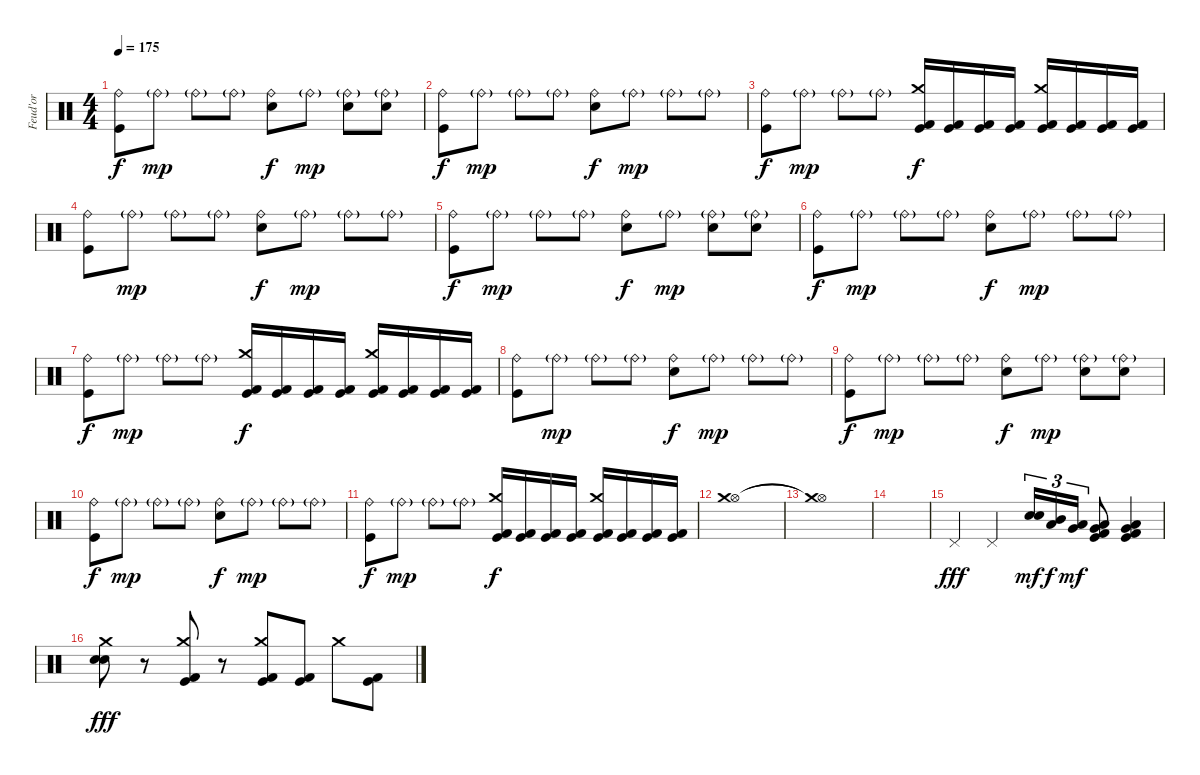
\track ("Feud'or" "Feud'or") {instrument percussion}
\staff {score}
\articulation defaults
\ts (4 4)
\tempo 175
\clef neutral
\ks c
("Ride (bell)" "Kick (hit)").8{dy f} "Ride (bell)"{g}.8{dy mp} "Ride (bell)"{g}.8 "Ride (bell)"{g}.8 ("Ride (bell)" "Snare (hit) 2").8{dy f} "Ride (bell)"{g}.8{dy mp} ("Ride (bell)"{g} "Snare (hit) 2").8 ("Ride (bell)"{g} "Snare (hit) 2").8 |
("Ride (bell)" "Kick (hit)").8{dy f} "Ride (bell)"{g}.8{dy mp} "Ride (bell)"{g}.8 "Ride (bell)"{g}.8 ("Ride (bell)" "Snare (hit) 2").8{dy f} "Ride (bell)"{g}.8{dy mp} "Ride (bell)"{g}.8 "Ride (bell)"{g}.8 |
("Ride (bell)" "Kick (hit)").8{dy f} "Ride (bell)"{g}.8{dy mp} "Ride (bell)"{g}.8 "Ride (bell)"{g}.8 ("Crash medium (hit)" "Kick (hit) 2" "Kick (hit)").16{dy f} ("Kick (hit) 2" "Kick (hit)").16 ("Kick (hit) 2" "Kick (hit)").16 ("Kick (hit) 2" "Kick (hit)").16 ("Crash medium (hit)" "Kick (hit) 2" "Kick (hit)").16 ("Kick (hit) 2" "Kick (hit)").16 ("Kick (hit) 2" "Kick (hit)").16 ("Kick (hit) 2" "Kick (hit)").16 |
("Ride (bell)" "Kick (hit)").8 "Ride (bell)"{g}.8{dy mp} "Ride (bell)"{g}.8 "Ride (bell)"{g}.8 ("Ride (bell)" "Snare (hit) 2").8{dy f} "Ride (bell)"{g}.8{dy mp} "Ride (bell)"{g}.8 "Ride (bell)"{g}.8 |
("Ride (bell)" "Kick (hit)").8{dy f} "Ride (bell)"{g}.8{dy mp} "Ride (bell)"{g}.8 "Ride (bell)"{g}.8 ("Ride (bell)" "Snare (hit) 2").8{dy f} "Ride (bell)"{g}.8{dy mp} ("Ride (bell)"{g} "Snare (hit) 2").8 ("Ride (bell)"{g} "Snare (hit) 2").8 |
("Ride (bell)" "Kick (hit)").8{dy f} "Ride (bell)"{g}.8{dy mp} "Ride (bell)"{g}.8 "Ride (bell)"{g}.8 ("Ride (bell)" "Snare (hit) 2").8{dy f} "Ride (bell)"{g}.8{dy mp} "Ride (bell)"{g}.8 "Ride (bell)"{g}.8 |
("Ride (bell)" "Kick (hit)").8{dy f} "Ride (bell)"{g}.8{dy mp} "Ride (bell)"{g}.8 "Ride (bell)"{g}.8 ("Crash medium (hit)" "Kick (hit) 2" "Kick (hit)").16{dy f} ("Kick (hit) 2" "Kick (hit)").16 ("Kick (hit) 2" "Kick (hit)").16 ("Kick (hit) 2" "Kick (hit)").16 ("Crash medium (hit)" "Kick (hit) 2" "Kick (hit)").16 ("Kick (hit) 2" "Kick (hit)").16 ("Kick (hit) 2" "Kick (hit)").16 ("Kick (hit) 2" "Kick (hit)").16 |
("Ride (bell)" "Kick (hit)").8 "Ride (bell)"{g}.8{dy mp} "Ride (bell)"{g}.8 "Ride (bell)"{g}.8 ("Ride (bell)" "Snare (hit) 2").8{dy f} "Ride (bell)"{g}.8{dy mp} "Ride (bell)"{g}.8 "Ride (bell)"{g}.8 |
("Ride (bell)" "Kick (hit)").8{dy f} "Ride (bell)"{g}.8{dy mp} "Ride (bell)"{g}.8 "Ride (bell)"{g}.8 ("Ride (bell)" "Snare (hit) 2").8{dy f} "Ride (bell)"{g}.8{dy mp} ("Ride (bell)"{g} "Snare (hit) 2").8 ("Ride (bell)"{g} "Snare (hit) 2").8 |
("Ride (bell)" "Kick (hit)").8{dy f} "Ride (bell)"{g}.8{dy mp} "Ride (bell)"{g}.8 "Ride (bell)"{g}.8 ("Ride (bell)" "Snare (hit) 2").8{dy f} "Ride (bell)"{g}.8{dy mp} "Ride (bell)"{g}.8 "Ride (bell)"{g}.8 |
("Ride (bell)" "Kick (hit)").8{dy f} "Ride (bell)"{g}.8{dy mp} "Ride (bell)"{g}.8 "Ride (bell)"{g}.8 ("Crash medium (hit)" "Kick (hit) 2" "Kick (hit)").16{dy f} ("Kick (hit) 2" "Kick (hit)").16 ("Kick (hit) 2" "Kick (hit)").16 ("Kick (hit) 2" "Kick (hit)").16 ("Crash medium (hit)" "Kick (hit) 2" "Kick (hit)").16 ("Kick (hit) 2" "Kick (hit)").16 ("Kick (hit) 2" "Kick (hit)").16 ("Kick (hit) 2" "Kick (hit)").16 |
("Hi-Hat (open)" "Crash medium (hit)").1 |
("Hi-Hat (open)"{t} "Crash medium (hit)"{t}).1 |
|
"Pedal Hi-Hat (hit)".4{dy fff} "Pedal Hi-Hat (hit)".4 ("Snare (hit) 2" "Electric Snare (hit)").16{tu (3 2) dy mf} ("Mid Tom (hit)" "Low Tom (hit)").16{tu (3 2) dy f} ("Very Low Tom (hit)" "Low Tom (hit)").16{tu (3 2) dy mf} ("Very Low Tom (hit)" "Low Tom (hit)" "Kick (hit) 2" "Kick (hit)").8 ("Very Low Tom (hit)" "Low Floor Tom (hit)" "Kick (hit) 2" "Kick (hit)").4 |
("Crash medium (hit)" "Electric Snare (hit)" "Snare (hit) 2").8{dy fff} r.8 ("Crash medium (hit)" "Kick (hit) 2" "Kick (hit)").8 r.8 ("Crash medium (hit)" "Kick (hit) 2" "Kick (hit)").8 ("Kick (hit) 2" "Kick (hit)").8 "Crash medium (hit)".8 ("Kick (hit) 2" "Kick (hit)").8
